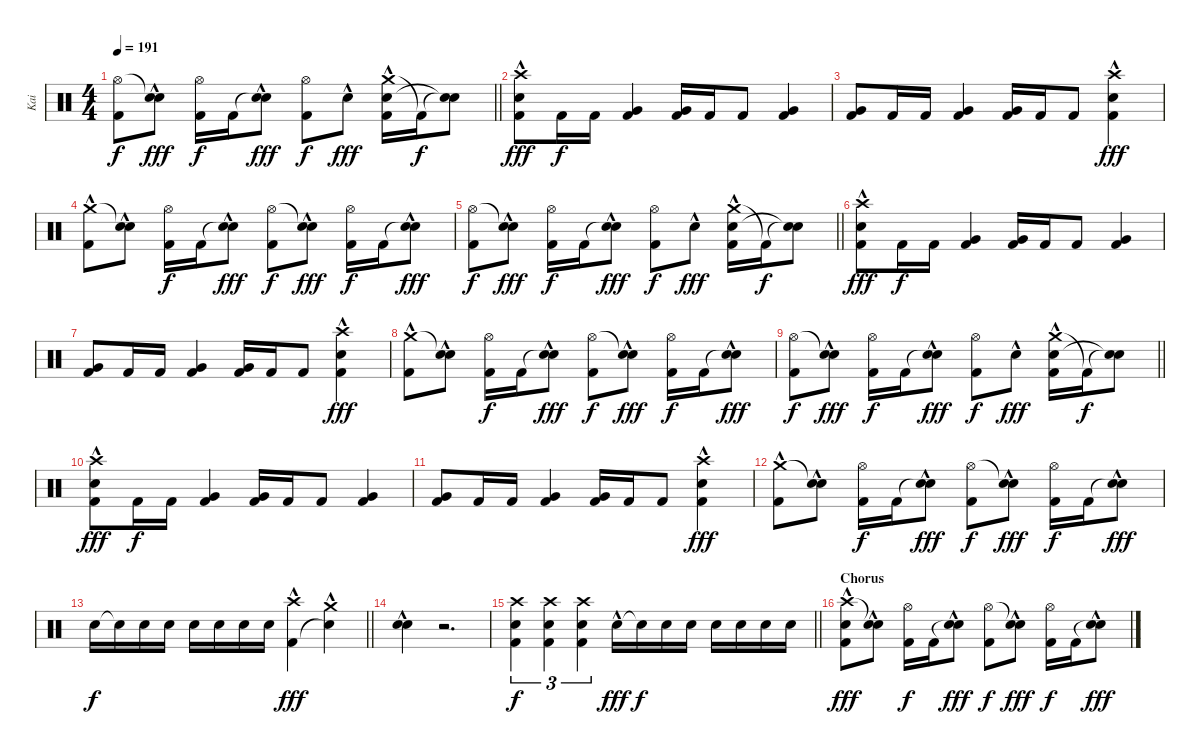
\track ("Kai" "Kai") {instrument percussion}
\staff {score}
\articulation defaults
\ts (4 4)
\tempo 191
\clef neutral
\barLineRight lightlight
\ks c
("Hi-Hat (open)" "Kick (hit) 2").8{dy f} ("Snare (hit)"{t} "Snare (hit) 2"{hac}).8{dy fff} ("Hi-Hat (open)" "Kick (hit) 2").16{dy f} "Kick (hit) 2".16 ("Snare (hit)"{t} "Snare (hit) 2"{hac}).8{dy fff} ("Hi-Hat (open)" "Kick (hit) 2").8{dy f} "Snare (hit) 2"{hac}.8{dy fff} ("Crash medium (hit)"{hac} "Snare (hit) 2"{hac} "Kick (hit) 2").16 "Kick (hit) 2"{t}.16{dy f} ("Snare (hit)"{t} "Snare (hit) 2"{t}).8 |
\section ("" "")
("Crash high (hit)"{hac} "Snare (hit) 2" "Kick (hit) 2").8{dy fff} "Kick (hit) 2".16{dy f} "Kick (hit) 2".16 ("Very Low Tom (hit)" "Kick (hit) 2").4 ("Very Low Tom (hit)" "Kick (hit) 2").16 "Kick (hit) 2".16 "Kick (hit) 2".8 ("Very Low Tom (hit)" "Kick (hit) 2").4 |
("Very Low Tom (hit)" "Kick (hit) 2").8 "Kick (hit) 2".16 "Kick (hit) 2".16 ("Very Low Tom (hit)" "Kick (hit) 2").4 ("Very Low Tom (hit)" "Kick (hit) 2").16 "Kick (hit) 2".16 "Kick (hit) 2".8 ("Crash high (hit)"{hac} "Snare (hit) 2"{hac} "Kick (hit) 2").4{dy fff} |
("Crash medium (hit)"{hac} "Kick (hit) 2").8 ("Snare (hit)"{t} "Snare (hit) 2"{hac}).8 ("Hi-Hat (open)" "Kick (hit) 2").16{dy f} "Kick (hit) 2".16 ("Snare (hit)"{t} "Snare (hit) 2"{hac}).8{dy fff} ("Hi-Hat (open)" "Kick (hit) 2").8{dy f} ("Snare (hit)"{t} "Snare (hit) 2"{hac}).8{dy fff} ("Hi-Hat (open)" "Kick (hit) 2").16{dy f} "Kick (hit) 2".16 ("Snare (hit)"{t} "Snare (hit) 2"{hac}).8{dy fff} |
\barLineRight lightlight
("Hi-Hat (open)" "Kick (hit) 2").8{dy f} ("Snare (hit)"{t} "Snare (hit) 2"{hac}).8{dy fff} ("Hi-Hat (open)" "Kick (hit) 2").16{dy f} "Kick (hit) 2".16 ("Snare (hit)"{t} "Snare (hit) 2"{hac}).8{dy fff} ("Hi-Hat (open)" "Kick (hit) 2").8{dy f} "Snare (hit) 2"{hac}.8{dy fff} ("Crash medium (hit)"{hac} "Snare (hit) 2"{hac} "Kick (hit) 2").16 "Kick (hit) 2"{t}.16{dy f} ("Snare (hit)"{t} "Snare (hit) 2"{t}).8 |
("Crash high (hit)"{hac} "Snare (hit) 2" "Kick (hit) 2").8{dy fff} "Kick (hit) 2".16{dy f} "Kick (hit) 2".16 ("Very Low Tom (hit)" "Kick (hit) 2").4 ("Very Low Tom (hit)" "Kick (hit) 2").16 "Kick (hit) 2".16 "Kick (hit) 2".8 ("Very Low Tom (hit)" "Kick (hit) 2").4 |
("Very Low Tom (hit)" "Kick (hit) 2").8 "Kick (hit) 2".16 "Kick (hit) 2".16 ("Very Low Tom (hit)" "Kick (hit) 2").4 ("Very Low Tom (hit)" "Kick (hit) 2").16 "Kick (hit) 2".16 "Kick (hit) 2".8 ("Crash high (hit)"{hac} "Snare (hit) 2"{hac} "Kick (hit) 2").4{dy fff} |
("Crash medium (hit)"{hac} "Kick (hit) 2").8 ("Snare (hit)"{t} "Snare (hit) 2"{hac}).8 ("Hi-Hat (open)" "Kick (hit) 2").16{dy f} "Kick (hit) 2".16 ("Snare (hit)"{t} "Snare (hit) 2"{hac}).8{dy fff} ("Hi-Hat (open)" "Kick (hit) 2").8{dy f} ("Snare (hit)"{t} "Snare (hit) 2"{hac}).8{dy fff} ("Hi-Hat (open)" "Kick (hit) 2").16{dy f} "Kick (hit) 2".16 ("Snare (hit)"{t} "Snare (hit) 2"{hac}).8{dy fff} |
\barLineRight lightlight
("Hi-Hat (open)" "Kick (hit) 2").8{dy f} ("Snare (hit)"{t} "Snare (hit) 2"{hac}).8{dy fff} ("Hi-Hat (open)" "Kick (hit) 2").16{dy f} "Kick (hit) 2".16 ("Snare (hit)"{t} "Snare (hit) 2"{hac}).8{dy fff} ("Hi-Hat (open)" "Kick (hit) 2").8{dy f} "Snare (hit) 2"{hac}.8{dy fff} ("Crash medium (hit)"{hac} "Snare (hit) 2"{hac} "Kick (hit) 2").16 "Kick (hit) 2"{t}.16{dy f} ("Snare (hit)"{t} "Snare (hit) 2"{t}).8 |
("Crash high (hit)"{hac} "Snare (hit) 2" "Kick (hit) 2").8{dy fff} "Kick (hit) 2".16{dy f} "Kick (hit) 2".16 ("Very Low Tom (hit)" "Kick (hit) 2").4 ("Very Low Tom (hit)" "Kick (hit) 2").16 "Kick (hit) 2".16 "Kick (hit) 2".8 ("Very Low Tom (hit)" "Kick (hit) 2").4 |
("Very Low Tom (hit)" "Kick (hit) 2").8 "Kick (hit) 2".16 "Kick (hit) 2".16 ("Very Low Tom (hit)" "Kick (hit) 2").4 ("Very Low Tom (hit)" "Kick (hit) 2").16 "Kick (hit) 2".16 "Kick (hit) 2".8 ("Crash high (hit)"{hac} "Snare (hit) 2"{hac} "Kick (hit) 2").4{dy fff} |
("Crash medium (hit)"{hac} "Kick (hit) 2").8 ("Snare (hit)"{t} "Snare (hit) 2"{hac}).8 ("Hi-Hat (open)" "Kick (hit) 2").16{dy f} "Kick (hit) 2".16 ("Snare (hit)"{t} "Snare (hit) 2"{hac}).8{dy fff} ("Hi-Hat (open)" "Kick (hit) 2").8{dy f} ("Snare (hit)"{t} "Snare (hit) 2"{hac}).8{dy fff} ("Hi-Hat (open)" "Kick (hit) 2").16{dy f} "Kick (hit) 2".16 ("Snare (hit)"{t} "Snare (hit) 2"{hac}).8{dy fff} |
\barLineRight lightlight "Snare (hit) 2".16{dy f} "Snare (hit) 2"{t}.16 "Snare (hit) 2".16 "Snare (hit) 2".16 "Snare (hit) 2".16 "Snare (hit) 2".16 "Snare (hit) 2".16 "Snare (hit) 2".16
("Crash high (hit)" "Kick (hit) 2"{hac}).4{dy fff} ("Crash medium (hit)"{hac} "Snare (hit) 2"{t}).4 |
("Snare (hit) 2"{hac} "Snare (hit) 2"{hac}).4 r.2{d} |
\barLineRight lightlight
("Crash high (hit)" "Snare (hit) 2" "Kick (hit) 2").4{tu (3 2) dy f} ("Crash high (hit)" "Snare (hit) 2" "Kick (hit) 2").4{tu (3 2)} ("Crash high (hit)" "Snare (hit) 2" "Kick (hit) 2").4{tu (3 2)} "Snare (hit) 2"{hac}.16{dy fff} "Snare (hit) 2"{t}.16{dy f} "Snare (hit) 2".16 "Snare (hit) 2".16 "Snare (hit) 2".16 "Snare (hit) 2".16 "Snare (hit) 2".16 "Snare (hit) 2".16 |
\section ("" "Chorus")
("Crash high (hit)"{hac} "Snare (hit) 2" "Kick (hit) 2").8{dy fff} ("Snare (hit)"{t} "Snare (hit) 2"{hac}).8 ("Hi-Hat (open)" "Kick (hit) 2").16{dy f} "Kick (hit) 2".16 ("Snare (hit)"{t} "Snare (hit) 2"{hac}).8{dy fff} ("Hi-Hat (open)" "Kick (hit) 2").8{dy f} ("Snare (hit)"{t} "Snare (hit) 2"{hac}).8{dy fff} ("Hi-Hat (open)" "Kick (hit) 2").16{dy f} "Kick (hit) 2".16 ("Snare (hit)"{t} "Snare (hit) 2"{hac}).8{dy fff}
